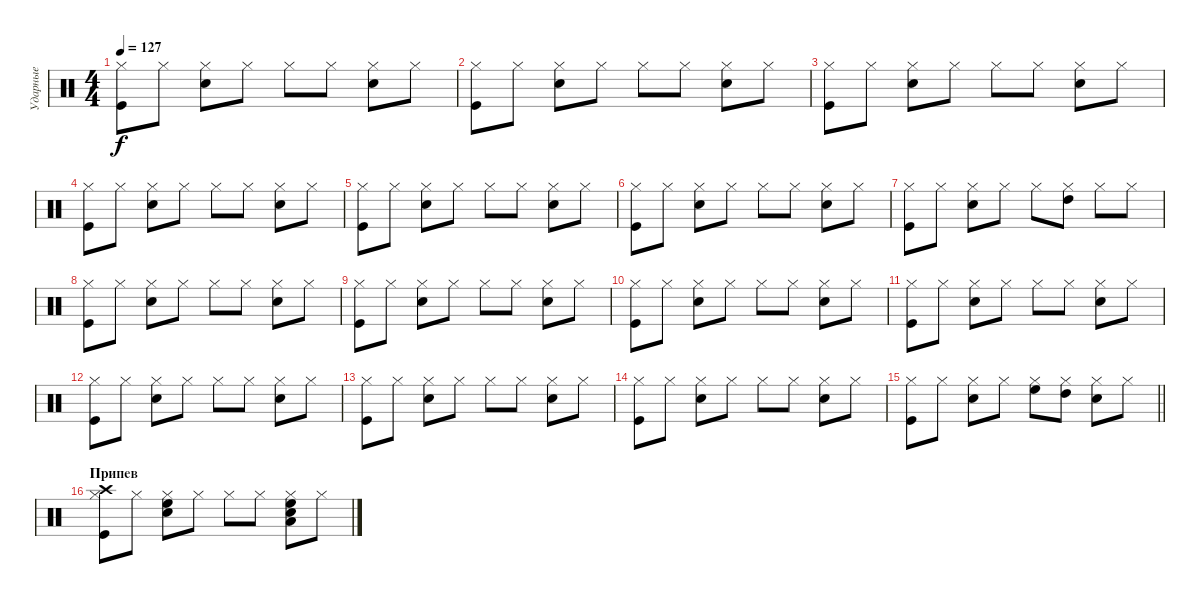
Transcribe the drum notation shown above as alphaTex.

\track ("Ударные" "Ударные") {instrument percussion}
\staff {score}
\articulation defaults
\ts (4 4)
\tempo 127
\clef neutral
\ks c
("Hi-Hat (closed)" "Kick (hit)").8{dy f} "Hi-Hat (closed)".8 ("Hi-Hat (closed)" "Snare (hit) 2").8 "Hi-Hat (closed)".8 "Hi-Hat (closed)".8 "Hi-Hat (closed)".8 ("Hi-Hat (closed)" "Snare (hit) 2").8 "Hi-Hat (closed)".8 |
("Hi-Hat (closed)" "Kick (hit)").8 "Hi-Hat (closed)".8 ("Hi-Hat (closed)" "Snare (hit) 2").8 "Hi-Hat (closed)".8 "Hi-Hat (closed)".8 "Hi-Hat (closed)".8 ("Hi-Hat (closed)" "Snare (hit) 2").8 "Hi-Hat (closed)".8 |
("Hi-Hat (closed)" "Kick (hit)").8 "Hi-Hat (closed)".8 ("Hi-Hat (closed)" "Snare (hit) 2").8 "Hi-Hat (closed)".8 "Hi-Hat (closed)".8 "Hi-Hat (closed)".8 ("Hi-Hat (closed)" "Snare (hit) 2").8 "Hi-Hat (closed)".8 |
("Hi-Hat (closed)" "Kick (hit)").8 "Hi-Hat (closed)".8 ("Hi-Hat (closed)" "Snare (hit) 2").8 "Hi-Hat (closed)".8 "Hi-Hat (closed)".8 "Hi-Hat (closed)".8 ("Hi-Hat (closed)" "Snare (hit) 2").8 "Hi-Hat (closed)".8 |
("Hi-Hat (closed)" "Kick (hit)").8 "Hi-Hat (closed)".8 ("Hi-Hat (closed)" "Snare (hit) 2").8 "Hi-Hat (closed)".8 "Hi-Hat (closed)".8 "Hi-Hat (closed)".8 ("Hi-Hat (closed)" "Snare (hit) 2").8 "Hi-Hat (closed)".8 |
("Hi-Hat (closed)" "Kick (hit)").8 "Hi-Hat (closed)".8 ("Hi-Hat (closed)" "Snare (hit) 2").8 "Hi-Hat (closed)".8 "Hi-Hat (closed)".8 "Hi-Hat (closed)".8 ("Hi-Hat (closed)" "Snare (hit) 2").8 "Hi-Hat (closed)".8 |
("Hi-Hat (closed)" "Kick (hit)").8 "Hi-Hat (closed)".8 ("Hi-Hat (closed)" "Snare (hit) 2").8 "Hi-Hat (closed)".8 "Hi-Hat (closed)".8 ("Hi-Hat (closed)" "High Tom (hit)").8 "Hi-Hat (closed)".8 "Hi-Hat (closed)".8 |
("Hi-Hat (closed)" "Kick (hit)").8 "Hi-Hat (closed)".8 ("Hi-Hat (closed)" "Snare (hit) 2").8 "Hi-Hat (closed)".8 "Hi-Hat (closed)".8 "Hi-Hat (closed)".8 ("Hi-Hat (closed)" "Snare (hit) 2").8 "Hi-Hat (closed)".8 |
("Hi-Hat (closed)" "Kick (hit)").8 "Hi-Hat (closed)".8 ("Hi-Hat (closed)" "Snare (hit) 2").8 "Hi-Hat (closed)".8 "Hi-Hat (closed)".8 "Hi-Hat (closed)".8 ("Hi-Hat (closed)" "Snare (hit) 2").8 "Hi-Hat (closed)".8 |
("Hi-Hat (closed)" "Kick (hit)").8 "Hi-Hat (closed)".8 ("Hi-Hat (closed)" "Snare (hit) 2").8 "Hi-Hat (closed)".8 "Hi-Hat (closed)".8 "Hi-Hat (closed)".8 ("Hi-Hat (closed)" "Snare (hit) 2").8 "Hi-Hat (closed)".8 |
("Hi-Hat (closed)" "Kick (hit)").8 "Hi-Hat (closed)".8 ("Hi-Hat (closed)" "Snare (hit) 2").8 "Hi-Hat (closed)".8 "Hi-Hat (closed)".8 "Hi-Hat (closed)".8 ("Hi-Hat (closed)" "Snare (hit) 2").8 "Hi-Hat (closed)".8 |
("Hi-Hat (closed)" "Kick (hit)").8 "Hi-Hat (closed)".8 ("Hi-Hat (closed)" "Snare (hit) 2").8 "Hi-Hat (closed)".8 "Hi-Hat (closed)".8 "Hi-Hat (closed)".8 ("Hi-Hat (closed)" "Snare (hit) 2").8 "Hi-Hat (closed)".8 |
("Hi-Hat (closed)" "Kick (hit)").8 "Hi-Hat (closed)".8 ("Hi-Hat (closed)" "Snare (hit) 2").8 "Hi-Hat (closed)".8 "Hi-Hat (closed)".8 "Hi-Hat (closed)".8 ("Hi-Hat (closed)" "Snare (hit) 2").8 "Hi-Hat (closed)".8 |
("Hi-Hat (closed)" "Kick (hit)").8 "Hi-Hat (closed)".8 ("Hi-Hat (closed)" "Snare (hit) 2").8 "Hi-Hat (closed)".8 "Hi-Hat (closed)".8 "Hi-Hat (closed)".8 ("Hi-Hat (closed)" "Snare (hit) 2").8 "Hi-Hat (closed)".8 |
\barLineRight lightlight
("Hi-Hat (closed)" "Kick (hit)").8 "Hi-Hat (closed)".8 ("Hi-Hat (closed)" "Snare (hit) 2").8 "Hi-Hat (closed)".8 ("Hi-Hat (closed)" "High Floor Tom (hit)").8 ("Hi-Hat (closed)" "High Tom (hit)").8 ("Hi-Hat (closed)" "Snare (hit) 2").8 "Hi-Hat (closed)".8 |
\section ("" "Припев")
("Hi-Hat (closed)" "Crash high (hit)" "Kick (hit)").8 "Hi-Hat (closed)".8 ("Hi-Hat (closed)" "High Floor Tom (hit)" "Snare (hit) 2").8 "Hi-Hat (closed)".8 "Hi-Hat (closed)".8 "Hi-Hat (closed)".8 ("Hi-Hat (closed)" "High Floor Tom (hit)" "Snare (hit) 2" "Low Floor Tom (hit)").8 "Hi-Hat (closed)".8
